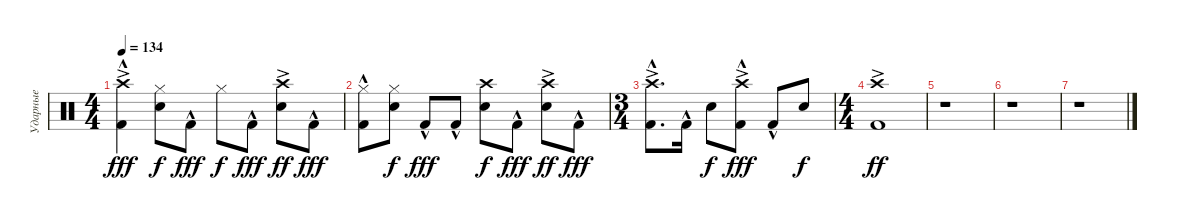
\track ("Ударные" "Ударные") {instrument percussion}
\staff {score}
\articulation defaults
\ts (4 4)
\tempo 134
\clef neutral
\ks c
("Crash high (hit)"{ac} "Kick (hit) 2"{hac}).4{dy fff} ("Hi-Hat (closed)" "Snare (hit) 2").8{dy f} "Kick (hit) 2"{hac}.8{dy fff} "Hi-Hat (closed)".8{dy f} "Kick (hit) 2"{hac}.8{dy fff} ("Crash high (hit)"{ac} "Snare (hit) 2").8{dy ff} "Kick (hit) 2"{hac}.8{dy fff} |
("Hi-Hat (closed)" "Kick (hit) 2"{hac}).8 ("Hi-Hat (closed)" "Snare (hit) 2").8{dy f} "Kick (hit) 2"{hac}.8{dy fff} "Kick (hit) 2"{hac}.8 ("Crash high (hit)" "Snare (hit) 2").8{dy f} "Kick (hit) 2"{hac}.8{dy fff} ("Crash high (hit)"{ac} "Snare (hit) 2").8{dy ff} "Kick (hit) 2"{hac}.8{dy fff} |
\ts (3 4)
("Crash high (hit)"{ac} "Kick (hit) 2"{hac}).8{d} "Kick (hit) 2"{hac}.16 "Snare (hit) 2".8{dy f} ("Crash high (hit)"{ac} "Kick (hit) 2"{hac}).8{dy fff} "Kick (hit) 2"{hac}.8 "Snare (hit) 2".8{dy f} |
\ts (4 4)
("Crash high (hit)"{ac} "Kick (hit) 2").1{dy ff} |
r.1 |
r.1 |
r.1
